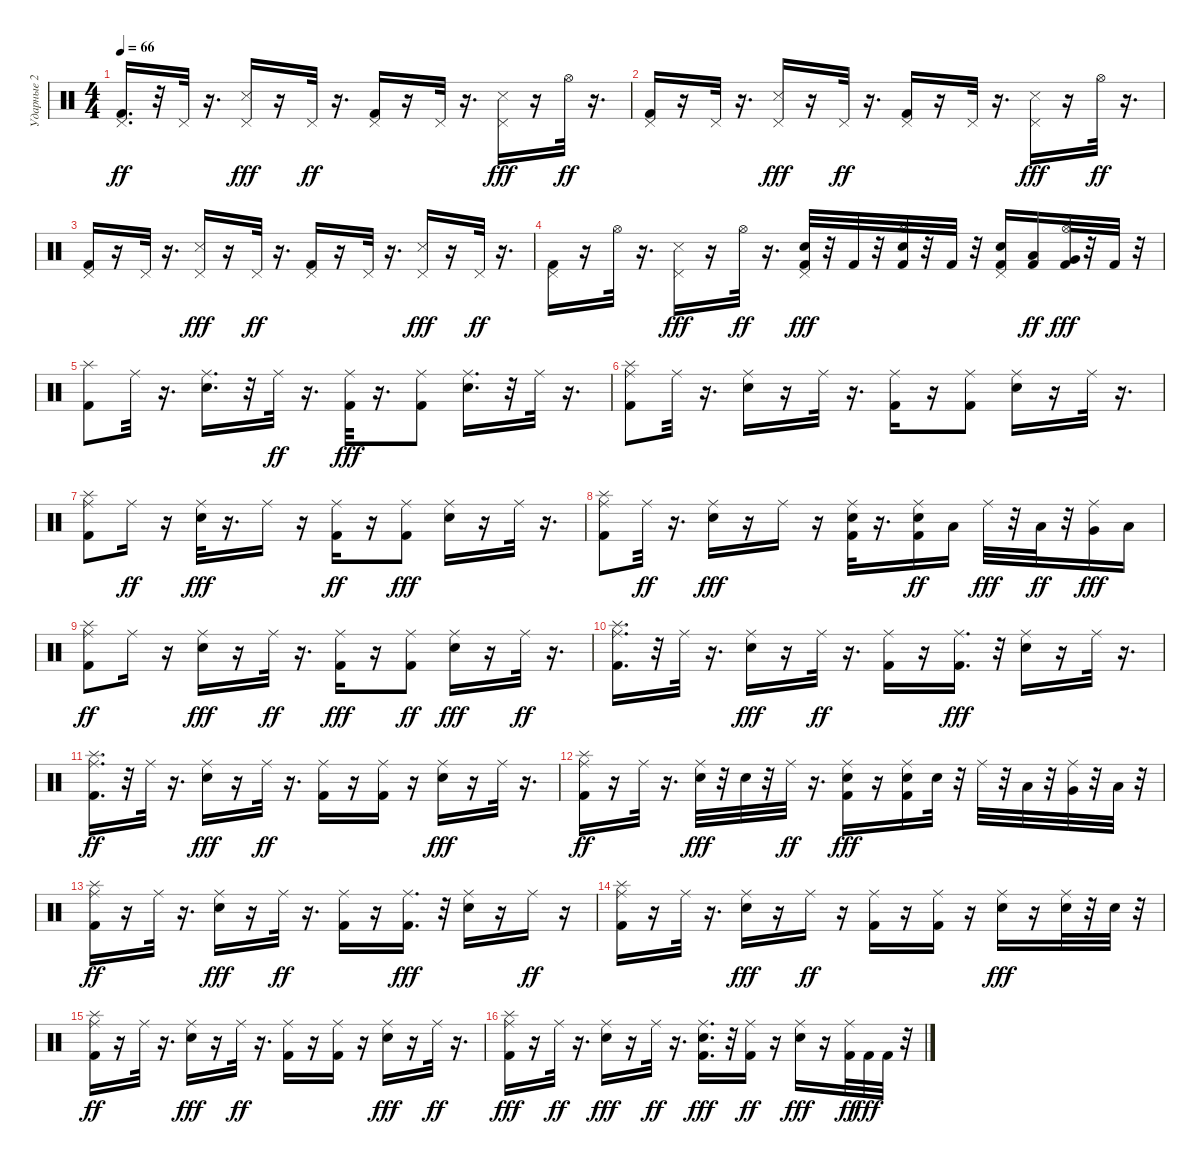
\track ("Ударные 2" "Ударные 2") {instrument percussion}
\staff {score}
\articulation defaults
\ts (4 4)
\tempo 66
\clef neutral
\ks c
("Kick (hit) 2" "Pedal Hi-Hat (hit)").16{d dy ff} r.32 "Pedal Hi-Hat (hit)".32 r.16{d} ("Pedal Hi-Hat (hit)" "Snare (side stick) 3").16{dy fff} r.16 "Pedal Hi-Hat (hit)".32{dy ff} r.16{d} ("Kick (hit) 2" "Pedal Hi-Hat (hit)").16 r.16 "Pedal Hi-Hat (hit)".32 r.16{d} ("Pedal Hi-Hat (hit)" "Snare (side stick) 3").16{dy fff} r.16 "Hi-Hat (open)".32{dy ff} r.16{d} |
("Kick (hit) 2" "Pedal Hi-Hat (hit)").16 r.16 "Pedal Hi-Hat (hit)".32 r.16{d} ("Pedal Hi-Hat (hit)" "Snare (side stick) 3").16{dy fff} r.16 "Pedal Hi-Hat (hit)".32{dy ff} r.16{d} ("Kick (hit) 2" "Pedal Hi-Hat (hit)").16 r.16 "Pedal Hi-Hat (hit)".32 r.16{d} ("Pedal Hi-Hat (hit)" "Snare (side stick) 3").16{dy fff} r.16 "Hi-Hat (open)".32{dy ff} r.16{d} |
("Kick (hit) 2" "Pedal Hi-Hat (hit)").16 r.16 "Pedal Hi-Hat (hit)".32 r.16{d} ("Pedal Hi-Hat (hit)" "Snare (side stick) 3").16{dy fff} r.16 "Pedal Hi-Hat (hit)".32{dy ff} r.16{d} ("Kick (hit) 2" "Pedal Hi-Hat (hit)").16 r.16 "Pedal Hi-Hat (hit)".32 r.16{d} ("Pedal Hi-Hat (hit)" "Snare (side stick) 3").16{dy fff} r.16 "Pedal Hi-Hat (hit)".32{dy ff} r.16{d} |
("Kick (hit) 2" "Pedal Hi-Hat (hit)").16 r.16 "Hi-Hat (open)".32 r.16{d} ("Pedal Hi-Hat (hit)" "Snare (side stick) 3").16{dy fff} r.16 "Hi-Hat (open)".32{dy ff} r.16{d} ("Kick (hit) 2" "Pedal Hi-Hat (hit)" "Snare (hit) 2").32{dy fff} r.32 "Kick (hit) 2".32 r.32 ("Kick (hit) 2" "Hi-Hat (open)" "Snare (hit) 2").32 r.32 "Kick (hit) 2".32 r.32 ("Kick (hit) 2" "Pedal Hi-Hat (hit)" "Snare (hit) 2").16 ("Kick (hit) 2" "Low Tom (hit)").16{dy ff} ("Kick (hit) 2" "Hi-Hat (open)" "Very Low Tom (hit)").32{dy fff} r.32 "Kick (hit) 2".32 r.32 |
("Kick (hit) 2" "Splash (hit)").8 "Ride (middle)".32 r.16{d} ("Ride (middle)" "Snare (hit) 2").16{d} r.32 "Ride (middle)".32{dy ff} r.16{d} ("Kick (hit) 2" "Ride (middle)").32{dy fff} r.16{d} ("Kick (hit) 2" "Ride (middle)").8 ("Ride (middle)" "Snare (hit) 2").16{d} r.32 "Ride (middle)".32 r.16{d} |
("Kick (hit) 2" "Ride (middle)" "Splash (hit)").8 "Ride (middle)".32 r.16{d} ("Ride (middle)" "Snare (hit) 2").16 r.16 "Ride (middle)".32 r.16{d} ("Kick (hit) 2" "Ride (middle)").16 r.16 ("Kick (hit) 2" "Ride (middle)").8 ("Ride (middle)" "Snare (hit) 2").16 r.16 "Ride (middle)".32 r.16{d} |
("Kick (hit) 2" "Ride (middle)" "Splash (hit)").8 "Ride (middle)".16{dy ff} r.16 ("Ride (middle)" "Snare (hit) 2").32{dy fff} r.16{d} "Ride (middle)".16 r.16 ("Kick (hit) 2" "Ride (middle)").16{dy ff} r.16 ("Kick (hit) 2" "Ride (middle)").8{dy fff} ("Ride (middle)" "Snare (hit) 2").16 r.16 "Ride (middle)".32 r.16{d} |
("Kick (hit) 2" "Ride (middle)" "Splash (hit)").8 "Ride (middle)".32{dy ff} r.16{d} ("Ride (middle)" "Snare (hit) 2").16{dy fff} r.16 "Ride (middle)".16 r.16 ("Kick (hit) 2" "Ride (middle)" "Snare (hit) 2").32 r.16{d} ("Kick (hit) 2" "Ride (middle)" "Snare (hit) 2").16{dy ff} "Low Tom (hit)".16 "Ride (middle)".32{dy fff} r.32 "Low Tom (hit)".32{dy ff} r.32 ("Ride (middle)" "Very Low Tom (hit)").16{dy fff} "Low Floor Tom (hit)".16 |
("Kick (hit) 2" "Splash (hit)" "Ride (middle)").8{dy ff} "Ride (middle)".16 r.16 ("Ride (middle)" "Snare (hit) 2").16{dy fff} r.16 "Ride (middle)".32{dy ff} r.16{d} ("Kick (hit) 2" "Ride (middle)").16{dy fff} r.16 ("Kick (hit) 2" "Ride (middle)").8{dy ff} ("Ride (middle)" "Snare (hit) 2").16{dy fff} r.16 "Ride (middle)".32{dy ff} r.16{d} |
("Kick (hit) 2" "Ride (middle)" "Splash (hit)").16{d} r.32 "Ride (middle)".32 r.16{d} ("Ride (middle)" "Snare (hit) 2").16{dy fff} r.16 "Ride (middle)".32{dy ff} r.16{d} ("Kick (hit) 2" "Ride (middle)").16 r.16 ("Kick (hit) 2" "Ride (middle)").16{d dy fff} r.32 ("Ride (middle)" "Snare (hit) 2").16 r.16 "Ride (middle)".32 r.16{d} |
("Kick (hit) 2" "Splash (hit)" "Ride (middle)").16{d dy ff} r.32 "Ride (middle)".32 r.16{d} ("Ride (middle)" "Snare (hit) 2").16{dy fff} r.16 "Ride (middle)".32{dy ff} r.16{d} ("Kick (hit) 2" "Ride (middle)").16 r.16 ("Kick (hit) 2" "Ride (middle)").16 r.16 ("Ride (middle)" "Snare (hit) 2").16{dy fff} r.16 "Ride (middle)".32 r.16{d} |
("Kick (hit) 2" "Splash (hit)" "Ride (middle)").16{dy ff} r.16 "Ride (middle)".32 r.16{d} ("Ride (middle)" "Snare (hit) 2").32{dy fff} r.32 "Snare (hit) 2".32 r.32 "Ride (middle)".32{dy ff} r.16{d} ("Kick (hit) 2" "Ride (middle)" "Snare (hit) 2").16{dy fff} r.16 ("Kick (hit) 2" "Ride (middle)" "Snare (hit) 2").16 "Snare (hit) 2".32 r.32 "Ride (middle)".32 r.32 "Low Tom (hit)".32 r.32 ("Ride (middle)" "Very Low Tom (hit)").32 r.32 "Low Floor Tom (hit)".32 r.32 |
("Kick (hit) 2" "Splash (hit)" "Ride (middle)").16{dy ff} r.16 "Ride (middle)".32 r.16{d} ("Ride (middle)" "Snare (hit) 2").16{dy fff} r.16 "Ride (middle)".32{dy ff} r.16{d} ("Kick (hit) 2" "Ride (middle)").16 r.16 ("Kick (hit) 2" "Ride (middle)").16{d dy fff} r.32 ("Ride (middle)" "Snare (hit) 2").16 r.16 "Ride (middle)".16{dy ff} r.16 |
("Kick (hit) 2" "Ride (middle)" "Splash (hit)").16 r.16 "Ride (middle)".32 r.16{d} ("Ride (middle)" "Snare (hit) 2").16{dy fff} r.16 "Ride (middle)".16{dy ff} r.16 ("Kick (hit) 2" "Ride (middle)").16 r.16 ("Kick (hit) 2" "Ride (middle)").16 r.16 ("Ride (middle)" "Snare (hit) 2").16{dy fff} r.16 ("Ride (middle)" "Snare (hit) 2").32 r.32 "Snare (hit) 2".32 r.32 |
("Kick (hit) 2" "Splash (hit)" "Ride (middle)").16{dy ff} r.16 "Ride (middle)".32 r.16{d} ("Ride (middle)" "Snare (hit) 2").16{dy fff} r.16 "Ride (middle)".32{dy ff} r.16{d} ("Kick (hit) 2" "Ride (middle)").16 r.16 ("Kick (hit) 2" "Ride (middle)").16 r.16 ("Ride (middle)" "Snare (hit) 2").16{dy fff} r.16 "Ride (middle)".32{dy ff} r.16{d} |
("Kick (hit) 2" "Ride (middle)" "Splash (hit)").16{dy fff} r.16 "Ride (middle)".32{dy ff} r.16{d} ("Ride (middle)" "Snare (hit) 2").16{dy fff} r.16 "Ride (middle)".32{dy ff} r.16{d} ("Kick (hit) 2" "Ride (middle)" "Snare (hit) 2").16{d dy fff} r.32 ("Kick (hit) 2" "Ride (middle)").16{dy ff} r.16 ("Ride (middle)" "Snare (hit) 2").16{dy fff} r.16 ("Kick (hit) 2" "Ride (middle)").32{dy ff} "Kick (hit) 2".32{dy fff} "Kick (hit) 2".32 r.32
